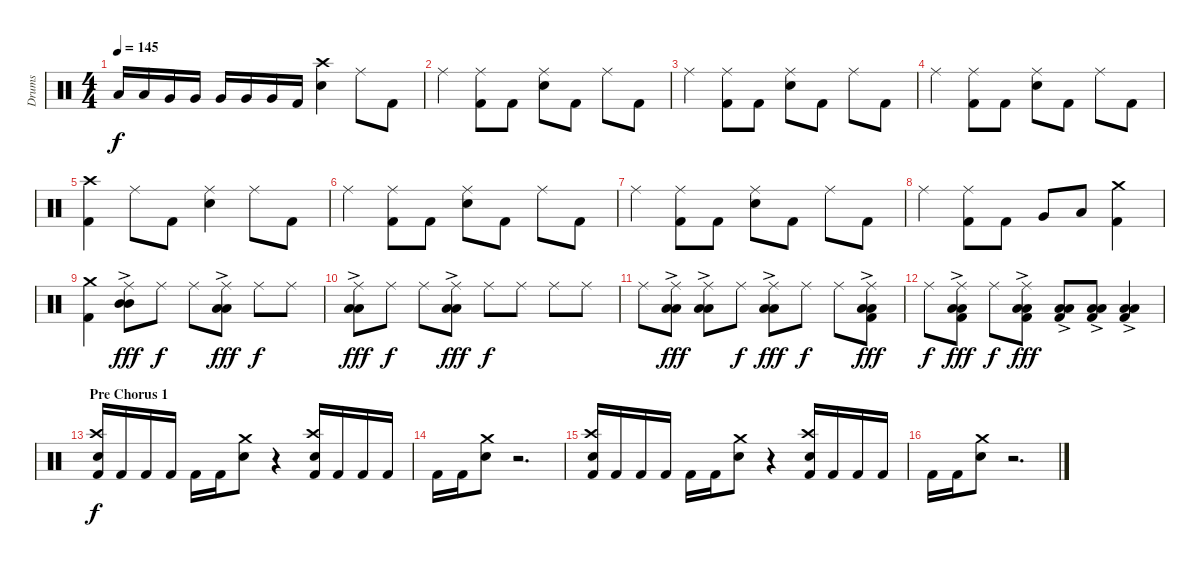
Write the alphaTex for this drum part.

\track ("Drums" "Drums") {instrument percussion}
\staff {score}
\articulation defaults
\ts (4 4)
\tempo 145
\clef neutral
\ks c "Low Tom (hit)".16{dy f} "Low Tom (hit)".16 "Very Low Tom (hit)".16 "Very Low Tom (hit)".16 "Very Low Tom (hit)".16 "Very Low Tom (hit)".16 "Very Low Tom (hit)".16 "Kick (hit) 2".16
("Crash high (hit)" "Snare (hit) 2").4 "Ride (middle)".8 "Kick (hit) 2".8 |
"Ride (middle)".4 ("Ride (middle)" "Kick (hit) 2").8 "Kick (hit) 2".8 ("Ride (middle)" "Snare (hit) 2").8 "Kick (hit) 2".8 "Ride (middle)".8 "Kick (hit) 2".8 |
"Ride (middle)".4 ("Ride (middle)" "Kick (hit) 2").8 "Kick (hit) 2".8 ("Ride (middle)" "Snare (hit) 2").8 "Kick (hit) 2".8 "Ride (middle)".8 "Kick (hit) 2".8 |
"Ride (middle)".4 ("Ride (middle)" "Kick (hit) 2").8 "Kick (hit) 2".8 ("Ride (middle)" "Snare (hit) 2").8 "Kick (hit) 2".8 "Ride (middle)".8 "Kick (hit) 2".8 |
("Crash high (hit)" "Kick (hit) 2").4 "Ride (middle)".8 "Kick (hit) 2".8 ("Ride (middle)" "Snare (hit) 2").4 "Ride (middle)".8 "Kick (hit) 2".8 |
"Ride (middle)".4 ("Ride (middle)" "Kick (hit) 2").8 "Kick (hit) 2".8 ("Ride (middle)" "Snare (hit) 2").8 "Kick (hit) 2".8 "Ride (middle)".8 "Kick (hit) 2".8 |
"Ride (middle)".4 ("Ride (middle)" "Kick (hit) 2").8 "Kick (hit) 2".8 ("Ride (middle)" "Snare (hit) 2").8 "Kick (hit) 2".8 "Ride (middle)".8 "Kick (hit) 2".8 |
"Ride (middle)".4 ("Ride (middle)" "Kick (hit) 2").8 "Kick (hit) 2".8 "Very Low Tom (hit)".8 "Low Floor Tom (hit)".8 ("Crash medium (hit)" "Kick (hit) 2").4 |
("Crash medium (hit)" "Kick (hit) 2").4 ("Ride (middle)" "Mid Tom (hit)"{ac} "Mid Tom (hit)"{ac}).8{dy fff} "Ride (middle)".8{dy f} "Ride (middle)".8 ("Ride (middle)" "Low Tom (hit)"{ac} "Low Tom (hit)"{ac}).8{dy fff} "Ride (middle)".8{dy f} "Ride (middle)".8 |
("Ride (middle)" "Low Floor Tom (hit)"{ac} "Low Floor Tom (hit)"{ac}).8{dy fff} "Ride (middle)".8{dy f} "Ride (middle)".8 ("Ride (middle)" "Low Floor Tom (hit)"{ac} "Low Floor Tom (hit)"{ac}).8{dy fff} "Ride (middle)".8{dy f} "Ride (middle)".8 "Ride (middle)".8 "Ride (middle)".8 |
"Ride (middle)".8 ("Ride (middle)" "Low Floor Tom (hit)"{ac} "Low Floor Tom (hit)"{ac}).8{dy fff} ("Ride (middle)" "Low Floor Tom (hit)"{ac} "Low Floor Tom (hit)"{ac}).8 "Ride (middle)".8{dy f} ("Ride (middle)" "Low Floor Tom (hit)"{ac} "Low Floor Tom (hit)"{ac}).8{dy fff} "Ride (middle)".8{dy f} "Ride (middle)".8 ("Ride (middle)" "Low Floor Tom (hit)"{ac} "Low Floor Tom (hit)"{ac} "Kick (hit) 2"{ac}).8{dy fff} |
"Ride (middle)".8{dy f} ("Ride (middle)" "Low Floor Tom (hit)"{ac} "Low Floor Tom (hit)"{ac} "Kick (hit) 2"{ac}).8{dy fff} "Ride (middle)".8{dy f} ("Ride (middle)" "Low Floor Tom (hit)"{ac} "Low Floor Tom (hit)"{ac} "Kick (hit) 2"{ac}).8{dy fff} ("Low Floor Tom (hit)"{ac} "Low Floor Tom (hit)"{ac} "Kick (hit) 2"{ac}).8 ("Low Floor Tom (hit)"{ac} "Low Floor Tom (hit)"{ac} "Kick (hit) 2"{ac}).8 ("Low Floor Tom (hit)"{ac} "Low Floor Tom (hit)"{ac} "Kick (hit) 2"{ac}).4 |
\section ("" "Pre Chorus 1")
("Crash high (hit)" "Snare (hit) 2" "Kick (hit) 2").16{dy f} "Kick (hit) 2".16 "Kick (hit) 2".16 "Kick (hit) 2".16 "Kick (hit) 2".16 "Kick (hit) 2".16 ("Crash medium (hit)" "Snare (hit) 2").8 r.4 ("Crash high (hit)" "Snare (hit) 2" "Kick (hit) 2").16 "Kick (hit) 2".16 "Kick (hit) 2".16 "Kick (hit) 2".16 |
"Kick (hit) 2".16 "Kick (hit) 2".16 ("Crash medium (hit)" "Snare (hit) 2").8 r.2{d} |
("Crash high (hit)" "Snare (hit) 2" "Kick (hit) 2").16 "Kick (hit) 2".16 "Kick (hit) 2".16 "Kick (hit) 2".16 "Kick (hit) 2".16 "Kick (hit) 2".16 ("Crash medium (hit)" "Snare (hit) 2").8 r.4 ("Crash high (hit)" "Snare (hit) 2" "Kick (hit) 2").16 "Kick (hit) 2".16 "Kick (hit) 2".16 "Kick (hit) 2".16 |
"Kick (hit) 2".16 "Kick (hit) 2".16 ("Crash medium (hit)" "Snare (hit) 2").8 r.2{d}
